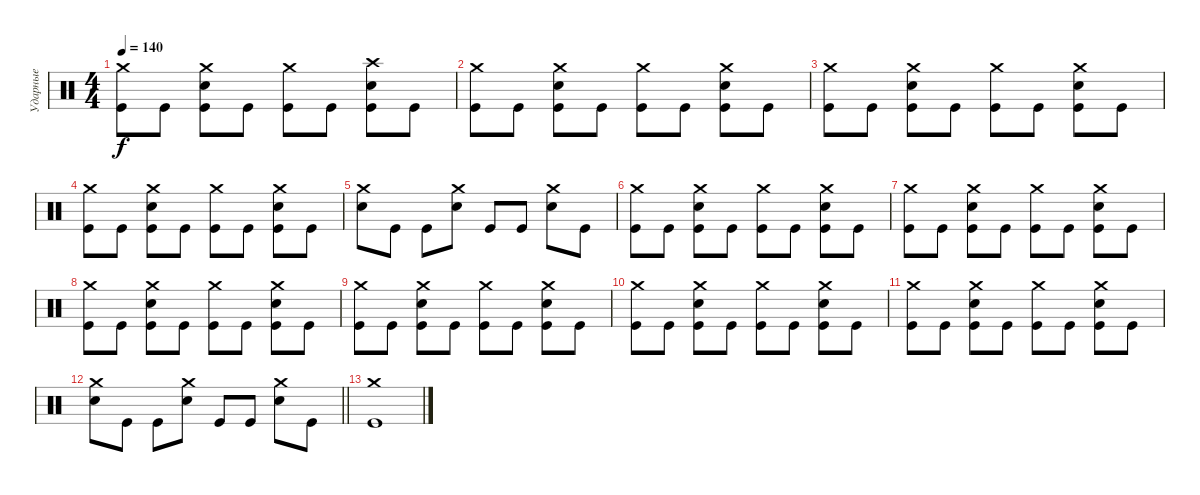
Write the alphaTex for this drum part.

\track ("Ударные" "Ударные") {instrument percussion}
\staff {score}
\articulation defaults
\ts (4 4)
\tempo 140
\clef neutral
\ks c
("Crash medium (hit)" "Kick (hit)").8{dy f} "Kick (hit)".8 ("Crash medium (hit)" "Electric Snare (hit)" "Kick (hit)").8 "Kick (hit)".8 ("Crash medium (hit)" "Kick (hit)").8 "Kick (hit)".8 ("Crash high (hit)" "Electric Snare (hit)" "Kick (hit)").8 "Kick (hit)".8 |
("Crash medium (hit)" "Kick (hit)").8 "Kick (hit)".8 ("Crash medium (hit)" "Electric Snare (hit)" "Kick (hit)").8 "Kick (hit)".8 ("Crash medium (hit)" "Kick (hit)").8 "Kick (hit)".8 ("Crash medium (hit)" "Electric Snare (hit)" "Kick (hit)").8 "Kick (hit)".8 |
("Crash medium (hit)" "Kick (hit)").8 "Kick (hit)".8 ("Crash medium (hit)" "Electric Snare (hit)" "Kick (hit)").8 "Kick (hit)".8 ("Crash medium (hit)" "Kick (hit)").8 "Kick (hit)".8 ("Crash medium (hit)" "Electric Snare (hit)" "Kick (hit)").8 "Kick (hit)".8 |
("Crash medium (hit)" "Kick (hit)").8 "Kick (hit)".8 ("Crash medium (hit)" "Electric Snare (hit)" "Kick (hit)").8 "Kick (hit)".8 ("Crash medium (hit)" "Kick (hit)").8 "Kick (hit)".8 ("Crash medium (hit)" "Electric Snare (hit)" "Kick (hit)").8 "Kick (hit)".8 |
("Crash medium (hit)" "Electric Snare (hit)").8 "Kick (hit)".8 "Kick (hit)".8 ("Crash medium (hit)" "Electric Snare (hit)").8 "Kick (hit)".8 "Kick (hit)".8 ("Crash medium (hit)" "Electric Snare (hit)").8 "Kick (hit)".8 |
("Crash medium (hit)" "Kick (hit)").8 "Kick (hit)".8 ("Crash medium (hit)" "Electric Snare (hit)" "Kick (hit)").8 "Kick (hit)".8 ("Crash medium (hit)" "Kick (hit)").8 "Kick (hit)".8 ("Crash medium (hit)" "Electric Snare (hit)" "Kick (hit)").8 "Kick (hit)".8 |
("Crash medium (hit)" "Kick (hit)").8 "Kick (hit)".8 ("Crash medium (hit)" "Electric Snare (hit)" "Kick (hit)").8 "Kick (hit)".8 ("Crash medium (hit)" "Kick (hit)").8 "Kick (hit)".8 ("Crash medium (hit)" "Electric Snare (hit)" "Kick (hit)").8 "Kick (hit)".8 |
("Crash medium (hit)" "Kick (hit)").8 "Kick (hit)".8 ("Crash medium (hit)" "Electric Snare (hit)" "Kick (hit)").8 "Kick (hit)".8 ("Crash medium (hit)" "Kick (hit)").8 "Kick (hit)".8 ("Crash medium (hit)" "Electric Snare (hit)" "Kick (hit)").8 "Kick (hit)".8 |
("Crash medium (hit)" "Kick (hit)").8 "Kick (hit)".8 ("Crash medium (hit)" "Electric Snare (hit)" "Kick (hit)").8 "Kick (hit)".8 ("Crash medium (hit)" "Kick (hit)").8 "Kick (hit)".8 ("Crash medium (hit)" "Electric Snare (hit)" "Kick (hit)").8 "Kick (hit)".8 |
("Crash medium (hit)" "Kick (hit)").8 "Kick (hit)".8 ("Crash medium (hit)" "Electric Snare (hit)" "Kick (hit)").8 "Kick (hit)".8 ("Crash medium (hit)" "Kick (hit)").8 "Kick (hit)".8 ("Crash medium (hit)" "Electric Snare (hit)" "Kick (hit)").8 "Kick (hit)".8 |
("Crash medium (hit)" "Kick (hit)").8 "Kick (hit)".8 ("Crash medium (hit)" "Electric Snare (hit)" "Kick (hit)").8 "Kick (hit)".8 ("Crash medium (hit)" "Kick (hit)").8 "Kick (hit)".8 ("Crash medium (hit)" "Electric Snare (hit)" "Kick (hit)").8 "Kick (hit)".8 |
\barLineRight lightlight
("Crash medium (hit)" "Electric Snare (hit)").8 "Kick (hit)".8 "Kick (hit)".8 ("Crash medium (hit)" "Electric Snare (hit)").8 "Kick (hit)".8 "Kick (hit)".8 ("Crash medium (hit)" "Electric Snare (hit)").8 "Kick (hit)".8 |
("Crash medium (hit)" "Kick (hit)").1
